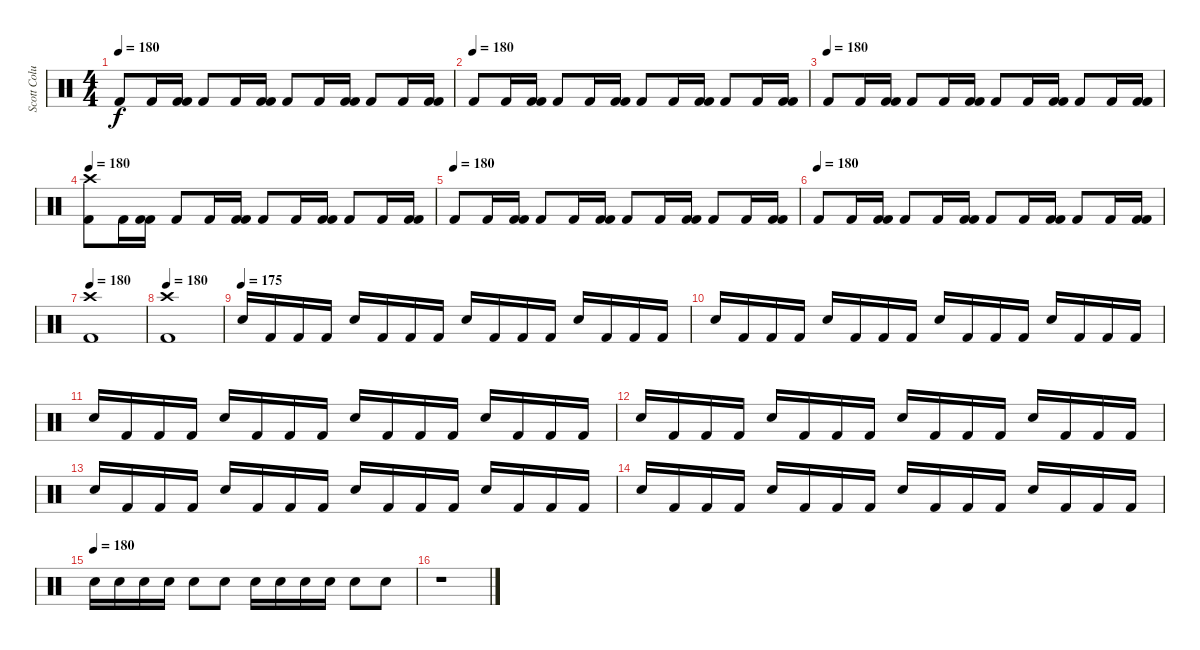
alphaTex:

\track ("Scott Columbus" "Scott Colu") {instrument percussion}
\staff {score}
\articulation defaults
\ts (4 4)
\tempo 180
\clef neutral
\ks c "Kick (hit) 2".8{dy f} "Kick (hit) 2".16
("Kick (hit) 2" "Kick (hit) 2").16 "Kick (hit) 2".8 "Kick (hit) 2".16 ("Kick (hit) 2" "Kick (hit) 2").16 "Kick (hit) 2".8 "Kick (hit) 2".16 ("Kick (hit) 2" "Kick (hit) 2").16 "Kick (hit) 2".8 "Kick (hit) 2".16 ("Kick (hit) 2" "Kick (hit) 2").16 |
\tempo (180)
"Kick (hit) 2".8 "Kick (hit) 2".16 ("Kick (hit) 2" "Kick (hit) 2").16 "Kick (hit) 2".8 "Kick (hit) 2".16 ("Kick (hit) 2" "Kick (hit) 2").16 "Kick (hit) 2".8 "Kick (hit) 2".16 ("Kick (hit) 2" "Kick (hit) 2").16 "Kick (hit) 2".8 "Kick (hit) 2".16 ("Kick (hit) 2" "Kick (hit) 2").16 |
\tempo (180)
"Kick (hit) 2".8 "Kick (hit) 2".16 ("Kick (hit) 2" "Kick (hit) 2").16 "Kick (hit) 2".8 "Kick (hit) 2".16 ("Kick (hit) 2" "Kick (hit) 2").16 "Kick (hit) 2".8 "Kick (hit) 2".16 ("Kick (hit) 2" "Kick (hit) 2").16 "Kick (hit) 2".8 "Kick (hit) 2".16 ("Kick (hit) 2" "Kick (hit) 2").16 |
\tempo 180
("Crash high (hit)" "Kick (hit) 2").8 "Kick (hit) 2".16 ("Kick (hit) 2" "Kick (hit) 2").16 "Kick (hit) 2".8 "Kick (hit) 2".16 ("Kick (hit) 2" "Kick (hit) 2").16 "Kick (hit) 2".8 "Kick (hit) 2".16 ("Kick (hit) 2" "Kick (hit) 2").16 "Kick (hit) 2".8 "Kick (hit) 2".16 ("Kick (hit) 2" "Kick (hit) 2").16 |
\tempo (180)
"Kick (hit) 2".8 "Kick (hit) 2".16 ("Kick (hit) 2" "Kick (hit) 2").16 "Kick (hit) 2".8 "Kick (hit) 2".16 ("Kick (hit) 2" "Kick (hit) 2").16 "Kick (hit) 2".8 "Kick (hit) 2".16 ("Kick (hit) 2" "Kick (hit) 2").16 "Kick (hit) 2".8 "Kick (hit) 2".16 ("Kick (hit) 2" "Kick (hit) 2").16 |
\tempo (180)
"Kick (hit) 2".8 "Kick (hit) 2".16 ("Kick (hit) 2" "Kick (hit) 2").16 "Kick (hit) 2".8 "Kick (hit) 2".16 ("Kick (hit) 2" "Kick (hit) 2").16 "Kick (hit) 2".8 "Kick (hit) 2".16 ("Kick (hit) 2" "Kick (hit) 2").16 "Kick (hit) 2".8 "Kick (hit) 2".16 ("Kick (hit) 2" "Kick (hit) 2").16 |
\tempo 180
("Crash high (hit)" "Kick (hit) 2").1 |
\tempo 180
("Crash high (hit)" "Kick (hit) 2").1 |
\tempo (175)
"Snare (hit) 2".16 "Kick (hit) 2".16 "Kick (hit) 2".16 "Kick (hit) 2".16 "Snare (hit) 2".16 "Kick (hit) 2".16 "Kick (hit) 2".16 "Kick (hit) 2".16 "Snare (hit) 2".16 "Kick (hit) 2".16 "Kick (hit) 2".16 "Kick (hit) 2".16 "Snare (hit) 2".16 "Kick (hit) 2".16 "Kick (hit) 2".16 "Kick (hit) 2".16 |
"Snare (hit) 2".16 "Kick (hit) 2".16 "Kick (hit) 2".16 "Kick (hit) 2".16 "Snare (hit) 2".16 "Kick (hit) 2".16 "Kick (hit) 2".16 "Kick (hit) 2".16 "Snare (hit) 2".16 "Kick (hit) 2".16 "Kick (hit) 2".16 "Kick (hit) 2".16 "Snare (hit) 2".16 "Kick (hit) 2".16 "Kick (hit) 2".16 "Kick (hit) 2".16 |
"Snare (hit) 2".16 "Kick (hit) 2".16 "Kick (hit) 2".16 "Kick (hit) 2".16 "Snare (hit) 2".16 "Kick (hit) 2".16 "Kick (hit) 2".16 "Kick (hit) 2".16 "Snare (hit) 2".16 "Kick (hit) 2".16 "Kick (hit) 2".16 "Kick (hit) 2".16 "Snare (hit) 2".16 "Kick (hit) 2".16 "Kick (hit) 2".16 "Kick (hit) 2".16 |
"Snare (hit) 2".16 "Kick (hit) 2".16 "Kick (hit) 2".16 "Kick (hit) 2".16 "Snare (hit) 2".16 "Kick (hit) 2".16 "Kick (hit) 2".16 "Kick (hit) 2".16 "Snare (hit) 2".16 "Kick (hit) 2".16 "Kick (hit) 2".16 "Kick (hit) 2".16 "Snare (hit) 2".16 "Kick (hit) 2".16 "Kick (hit) 2".16 "Kick (hit) 2".16 |
"Snare (hit) 2".16 "Kick (hit) 2".16 "Kick (hit) 2".16 "Kick (hit) 2".16 "Snare (hit) 2".16 "Kick (hit) 2".16 "Kick (hit) 2".16 "Kick (hit) 2".16 "Snare (hit) 2".16 "Kick (hit) 2".16 "Kick (hit) 2".16 "Kick (hit) 2".16 "Snare (hit) 2".16 "Kick (hit) 2".16 "Kick (hit) 2".16 "Kick (hit) 2".16 |
"Snare (hit) 2".16 "Kick (hit) 2".16 "Kick (hit) 2".16 "Kick (hit) 2".16 "Snare (hit) 2".16 "Kick (hit) 2".16 "Kick (hit) 2".16 "Kick (hit) 2".16 "Snare (hit) 2".16 "Kick (hit) 2".16 "Kick (hit) 2".16 "Kick (hit) 2".16 "Snare (hit) 2".16 "Kick (hit) 2".16 "Kick (hit) 2".16 "Kick (hit) 2".16 |
\tempo (180)
"Snare (hit) 2".16 "Snare (hit) 2".16 "Snare (hit) 2".16 "Snare (hit) 2".16 "Snare (hit) 2".8 "Snare (hit) 2".8 "Snare (hit) 2".16 "Snare (hit) 2".16 "Snare (hit) 2".16 "Snare (hit) 2".16 "Snare (hit) 2".8 "Snare (hit) 2".8 |
r.1
